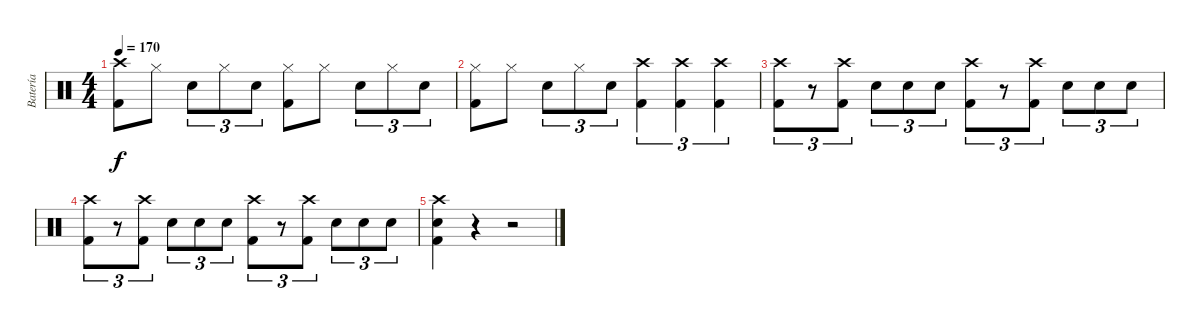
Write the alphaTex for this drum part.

\track ("Batería" "Batería") {instrument percussion}
\staff {score}
\articulation defaults
\ts (4 4)
\tempo 170
\clef neutral
\ks c
("Crash high (hit)" "Kick (hit) 2").8{dy f} "Hi-Hat (closed)".8 "Snare (hit) 2".8{tu (3 2)} "Hi-Hat (closed)".8{tu (3 2)} "Snare (hit) 2".8{tu (3 2)} ("Hi-Hat (closed)" "Kick (hit) 2").8 "Hi-Hat (closed)".8 "Snare (hit) 2".8{tu (3 2)} "Hi-Hat (closed)".8{tu (3 2)} "Snare (hit) 2".8{tu (3 2)} |
("Hi-Hat (closed)" "Kick (hit) 2").8 "Hi-Hat (closed)".8 "Snare (hit) 2".8{tu (3 2)} "Hi-Hat (closed)".8{tu (3 2)} "Snare (hit) 2".8{tu (3 2)} ("Crash high (hit)" "Kick (hit) 2").4{tu (3 2)} ("Crash high (hit)" "Kick (hit) 2").4{tu (3 2)} ("Crash high (hit)" "Kick (hit) 2").4{tu (3 2)} |
("Crash high (hit)" "Kick (hit) 2").8{tu (3 2)} r.8{tu (3 2)} ("Crash high (hit)" "Kick (hit) 2").8{tu (3 2)} "Snare (hit) 2".8{tu (3 2)} "Snare (hit) 2".8{tu (3 2)} "Snare (hit) 2".8{tu (3 2)} ("Crash high (hit)" "Kick (hit) 2").8{tu (3 2)} r.8{tu (3 2)} ("Crash high (hit)" "Kick (hit) 2").8{tu (3 2)} "Snare (hit) 2".8{tu (3 2)} "Snare (hit) 2".8{tu (3 2)} "Snare (hit) 2".8{tu (3 2)} |
("Crash high (hit)" "Kick (hit) 2").8{tu (3 2)} r.8{tu (3 2)} ("Crash high (hit)" "Kick (hit) 2").8{tu (3 2)} "Snare (hit) 2".8{tu (3 2)} "Snare (hit) 2".8{tu (3 2)} "Snare (hit) 2".8{tu (3 2)} ("Crash high (hit)" "Kick (hit) 2").8{tu (3 2)} r.8{tu (3 2)} ("Crash high (hit)" "Kick (hit) 2").8{tu (3 2)} "Snare (hit) 2".8{tu (3 2)} "Snare (hit) 2".8{tu (3 2)} "Snare (hit) 2".8{tu (3 2)} |
("Crash high (hit)" "Snare (hit) 2" "Kick (hit) 2").4 r.4 r.2
